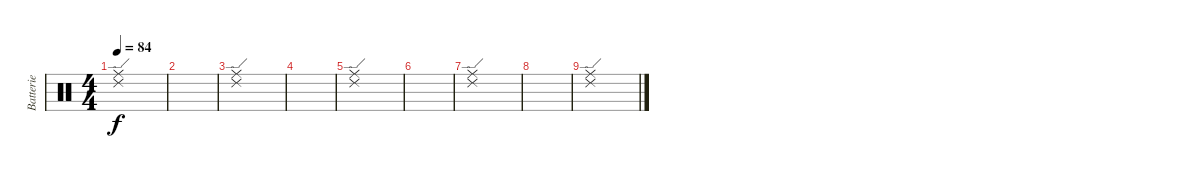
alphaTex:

\track ("Batterie" "Batterie") {instrument percussion}
\staff {score}
\articulation defaults
\ts (4 4)
\tempo 84
\clef neutral
\ks c
("Ride (middle)" "Ride (edge) 2").1{dy f volume 16} |
|
("Ride (middle)" "Ride (edge) 2").1 |
|
("Ride (middle)" "Ride (edge) 2").1 |
|
("Ride (middle)" "Ride (edge) 2").1 |
|
("Ride (middle)" "Ride (edge) 2").1
